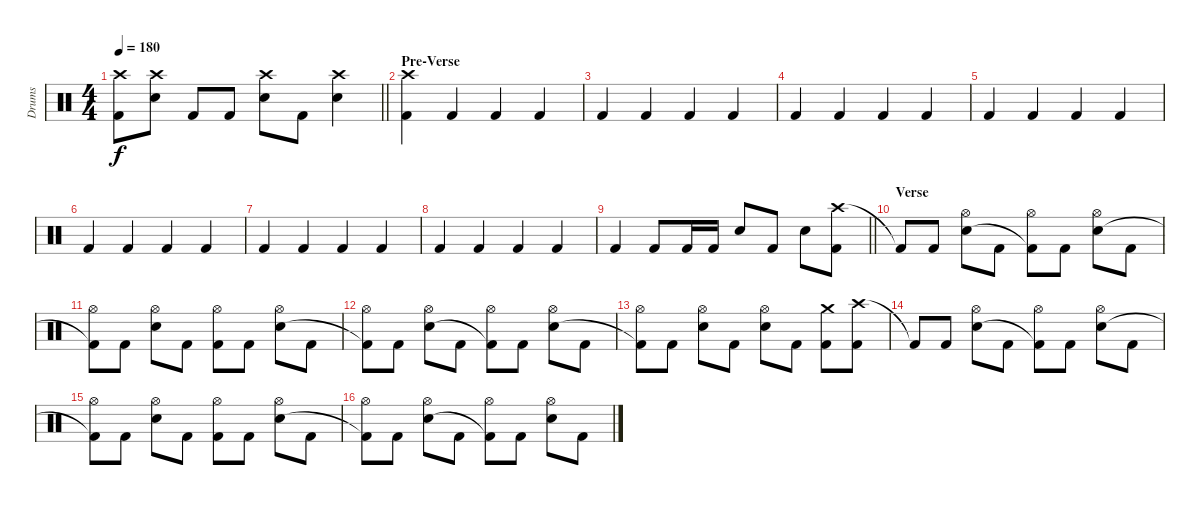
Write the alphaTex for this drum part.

\track ("Drums" "Drums") {instrument percussion}
\staff {score}
\articulation defaults
\ts (4 4)
\tempo 180
\clef neutral
\barLineRight lightlight
\ks c
("Crash high (hit)" "Kick (hit) 2").8{dy f} ("Crash high (hit)" "Electric Snare (hit)").8 "Kick (hit) 2".8 "Kick (hit) 2".8 ("Crash high (hit)" "Electric Snare (hit)").8 "Kick (hit) 2".8 ("Crash high (hit)" "Electric Snare (hit)").4 |
\section ("" "Pre-Verse")
("Crash high (hit)" "Kick (hit) 2").4 "Kick (hit) 2".4 "Kick (hit) 2".4 "Kick (hit) 2".4 |
"Kick (hit) 2".4 "Kick (hit) 2".4 "Kick (hit) 2".4 "Kick (hit) 2".4 |
"Kick (hit) 2".4 "Kick (hit) 2".4 "Kick (hit) 2".4 "Kick (hit) 2".4 |
"Kick (hit) 2".4 "Kick (hit) 2".4 "Kick (hit) 2".4 "Kick (hit) 2".4 |
"Kick (hit) 2".4 "Kick (hit) 2".4 "Kick (hit) 2".4 "Kick (hit) 2".4 |
"Kick (hit) 2".4 "Kick (hit) 2".4 "Kick (hit) 2".4 "Kick (hit) 2".4 |
"Kick (hit) 2".4 "Kick (hit) 2".4 "Kick (hit) 2".4 "Kick (hit) 2".4 |
\barLineRight lightlight "Kick (hit) 2".4 "Kick (hit) 2".8 "Kick (hit) 2".16 "Kick (hit) 2".16 "Electric Snare (hit)".8 "Kick (hit) 2".8 "Electric Snare (hit)".8
("Crash high (hit)" "Kick (hit) 2").8 |
\section ("" "Verse")
"Kick (hit) 2"{t}.8 "Kick (hit) 2".8 ("Hi-Hat (open)" "Electric Snare (hit)").8 "Kick (hit) 2".8 ("Hi-Hat (open)" "Kick (hit) 2"{t}).8 "Kick (hit) 2".8 ("Hi-Hat (open)" "Electric Snare (hit)").8 "Kick (hit) 2".8 |
("Hi-Hat (open)" "Kick (hit) 2"{t}).8 "Kick (hit) 2".8 ("Hi-Hat (open)" "Electric Snare (hit)").8 "Kick (hit) 2".8 ("Hi-Hat (open)" "Kick (hit) 2").8 "Kick (hit) 2".8 ("Hi-Hat (open)" "Electric Snare (hit)").8 "Kick (hit) 2".8 |
("Hi-Hat (open)" "Kick (hit) 2"{t}).8 "Kick (hit) 2".8 ("Hi-Hat (open)" "Electric Snare (hit)").8 "Kick (hit) 2".8 ("Hi-Hat (open)" "Kick (hit) 2"{t}).8 "Kick (hit) 2".8 ("Hi-Hat (open)" "Electric Snare (hit)").8 "Kick (hit) 2".8 |
("Hi-Hat (open)" "Kick (hit) 2"{t}).8 "Kick (hit) 2".8 ("Hi-Hat (open)" "Electric Snare (hit)").8 "Kick (hit) 2".8 ("Hi-Hat (open)" "Electric Snare (hit)").8 "Kick (hit) 2".8 ("Crash medium (hit)" "Kick (hit) 2").8 ("Crash high (hit)" "Kick (hit) 2").8 |
"Kick (hit) 2"{t}.8 "Kick (hit) 2".8 ("Hi-Hat (open)" "Electric Snare (hit)").8 "Kick (hit) 2".8 ("Hi-Hat (open)" "Kick (hit) 2"{t}).8 "Kick (hit) 2".8 ("Hi-Hat (open)" "Electric Snare (hit)").8 "Kick (hit) 2".8 |
("Hi-Hat (open)" "Kick (hit) 2"{t}).8 "Kick (hit) 2".8 ("Hi-Hat (open)" "Electric Snare (hit)").8 "Kick (hit) 2".8 ("Hi-Hat (open)" "Kick (hit) 2").8 "Kick (hit) 2".8 ("Hi-Hat (open)" "Electric Snare (hit)").8 "Kick (hit) 2".8 |
("Hi-Hat (open)" "Kick (hit) 2"{t}).8 "Kick (hit) 2".8 ("Hi-Hat (open)" "Electric Snare (hit)").8 "Kick (hit) 2".8 ("Hi-Hat (open)" "Kick (hit) 2"{t}).8 "Kick (hit) 2".8 ("Hi-Hat (open)" "Electric Snare (hit)").8 "Kick (hit) 2".8
